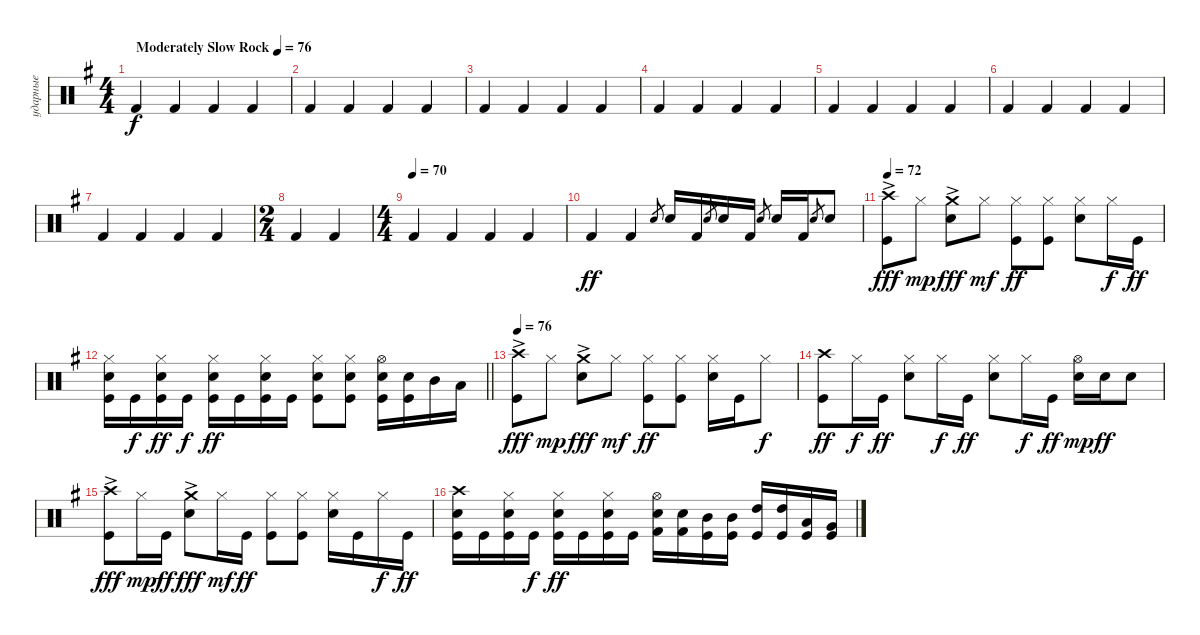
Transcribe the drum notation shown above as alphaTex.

\track ("ударные" "ударные") {instrument percussion}
\staff {score}
\articulation defaults
\ts (4 4)
\section ("" "")
\tempo (76 "Moderately Slow Rock")
\tempo 69
\tempo (76 "Moderately Slow Rock")
\clef neutral
\ks eminor "Kick (hit) 2".4{dy f} "Kick (hit) 2".4 "Kick (hit) 2".4 "Kick (hit) 2".4
|
"Kick (hit) 2".4 "Kick (hit) 2".4 "Kick (hit) 2".4 "Kick (hit) 2".4 |
"Kick (hit) 2".4 "Kick (hit) 2".4 "Kick (hit) 2".4 "Kick (hit) 2".4 |
"Kick (hit) 2".4 "Kick (hit) 2".4 "Kick (hit) 2".4 "Kick (hit) 2".4 |
"Kick (hit) 2".4 "Kick (hit) 2".4 "Kick (hit) 2".4 "Kick (hit) 2".4 |
"Kick (hit) 2".4 "Kick (hit) 2".4 "Kick (hit) 2".4 "Kick (hit) 2".4 |
"Kick (hit) 2".4 "Kick (hit) 2".4 "Kick (hit) 2".4 "Kick (hit) 2".4 |
\ts (2 4)
"Kick (hit) 2".4 "Kick (hit) 2".4 |
\ts (4 4)
\tempo (70)
"Kick (hit) 2".4 "Kick (hit) 2".4 "Kick (hit) 2".4 "Kick (hit) 2".4 |
"Kick (hit) 2".4{dy ff} "Kick (hit) 2".4 "Snare (hit) 2".8{gr} "Snare (hit) 2".16 "Kick (hit) 2".16 "Snare (hit) 2".8{gr} "Snare (hit) 2".16 "Kick (hit) 2".16 "Snare (hit) 2".8{gr} "Snare (hit) 2".16 "Kick (hit) 2".16 "Snare (hit) 2".8{gr} "Snare (hit) 2".8 |
\tempo 72
("Kick (hit)" "Crash high (hit)"{ac}).8{dy fff} "Hi-Hat (closed)".8{dy mp} ("Snare (hit) 2" "Crash medium (hit)"{ac}).8{dy fff} "Hi-Hat (closed)".8{dy mf} ("Kick (hit)" "Hi-Hat (closed)").8{dy ff} ("Kick (hit)" "Hi-Hat (closed)").8 ("Snare (hit) 2" "Hi-Hat (closed)").8 "Hi-Hat (closed)".16{dy f} "Kick (hit)".16{dy ff} |
\barLineRight lightlight
("Kick (hit)" "Snare (hit) 2" "Hi-Hat (closed)").16 "Kick (hit)".16{dy f} ("Kick (hit)" "Snare (hit) 2" "Hi-Hat (closed)").16{dy ff} "Kick (hit)".16{dy f} ("Kick (hit)" "Snare (hit) 2" "Hi-Hat (closed)").16{dy ff} "Kick (hit)".16 ("Kick (hit)" "Snare (hit) 2" "Hi-Hat (closed)").16 "Kick (hit)".16 ("Kick (hit)" "Snare (hit) 2" "Hi-Hat (closed)").8 ("Kick (hit)" "Snare (hit) 2" "Hi-Hat (closed)").8 ("Snare (hit) 2" "Hi-Hat (open)" "Kick (hit)").16 ("Snare (hit) 2" "Kick (hit)").16 "Mid Tom (hit)".16 "Low Tom (hit)".16 |
\section ("" "")
\tempo 76
("Kick (hit)" "Crash high (hit)"{ac}).8{dy fff} "Hi-Hat (closed)".8{dy mp} ("Snare (hit) 2" "Crash medium (hit)"{ac}).8{dy fff} "Hi-Hat (closed)".8{dy mf} ("Kick (hit)" "Hi-Hat (closed)").8{dy ff} ("Kick (hit)" "Hi-Hat (closed)").8 ("Snare (hit) 2" "Hi-Hat (closed)").16 "Kick (hit)".16 "Hi-Hat (closed)".8{dy f} |
("Kick (hit)" "Crash high (hit)").8{dy ff} "Hi-Hat (closed)".16{dy f} "Kick (hit)".16{dy ff} ("Snare (hit) 2" "Hi-Hat (closed)").8 "Hi-Hat (closed)".16{dy f} "Kick (hit)".16{dy ff} ("Snare (hit) 2" "Hi-Hat (closed)").8 "Hi-Hat (closed)".16{dy f} "Kick (hit)".16{dy ff} ("Snare (hit) 2" "Hi-Hat (open)").16{dy mp} "Snare (hit) 2".16{dy ff} "Snare (hit) 2".8 |
("Kick (hit)" "Crash high (hit)"{ac}).8{dy fff} "Hi-Hat (closed)".16{dy mp} "Kick (hit)".16{dy ff} ("Snare (hit) 2" "Crash medium (hit)"{ac}).8{dy fff} "Hi-Hat (closed)".16{dy mf} "Kick (hit)".16{dy ff} ("Kick (hit)" "Hi-Hat (closed)").8 ("Kick (hit)" "Hi-Hat (closed)").8 ("Snare (hit) 2" "Hi-Hat (closed)").16 "Kick (hit)".16 "Hi-Hat (closed)".16{dy f} "Kick (hit)".16{dy ff} |
("Crash high (hit)" "Kick (hit)" "Snare (hit) 2").16 "Kick (hit)".16 ("Kick (hit)" "Snare (hit) 2" "Hi-Hat (closed)").16 "Kick (hit)".16{dy f} ("Kick (hit)" "Snare (hit) 2" "Hi-Hat (closed)").16{dy ff} "Kick (hit)".16 ("Kick (hit)" "Snare (hit) 2" "Hi-Hat (closed)").16 "Kick (hit)".16 ("Snare (hit) 2" "Hi-Hat (open)" "Kick (hit) 2").16 ("Snare (hit) 2" "Kick (hit) 2").16 ("Kick (hit)" "Mid Tom (hit)").16 ("Kick (hit)" "Mid Tom (hit)").16 ("Kick (hit)" "High Tom (hit)").16 ("Kick (hit)" "High Tom (hit)").16 ("Low Tom (hit)" "Kick (hit)").16 ("Kick (hit)" "Very Low Tom (hit)").16
